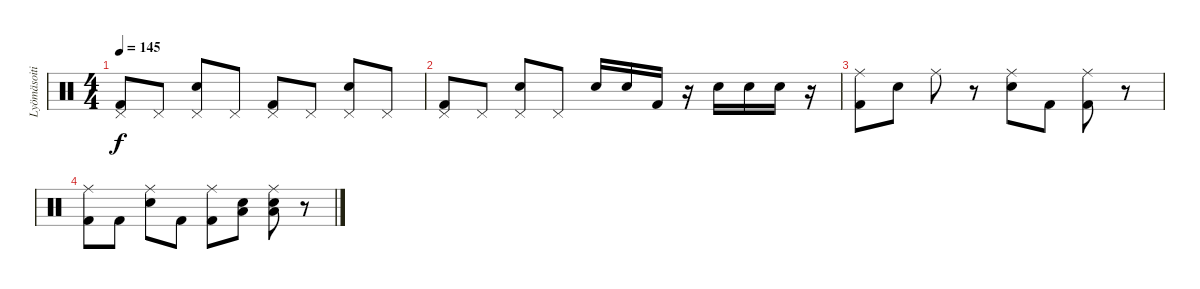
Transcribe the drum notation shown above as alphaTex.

\track ("Lyömäsoitin" "Lyömäsoiti") {instrument percussion}
\staff {score}
\articulation defaults
\ts (4 4)
\tempo 145
\clef neutral
\ks c
("Pedal Hi-Hat (hit)" "Kick (hit) 2").8{dy f} "Pedal Hi-Hat (hit)".8 ("Pedal Hi-Hat (hit)" "Electric Snare (hit)").8 "Pedal Hi-Hat (hit)".8 ("Pedal Hi-Hat (hit)" "Kick (hit) 2").8 "Pedal Hi-Hat (hit)".8 ("Pedal Hi-Hat (hit)" "Electric Snare (hit)").8 "Pedal Hi-Hat (hit)".8 |
("Pedal Hi-Hat (hit)" "Kick (hit) 2").8 "Pedal Hi-Hat (hit)".8 ("Pedal Hi-Hat (hit)" "Electric Snare (hit)").8 "Pedal Hi-Hat (hit)".8 "Electric Snare (hit)".16 "Electric Snare (hit)".16 "Kick (hit) 2".16 r.16 "Electric Snare (hit)".16 "Electric Snare (hit)".16 "Electric Snare (hit)".16 r.16 |
("Ride (middle)" "Kick (hit) 2").8 "Electric Snare (hit)".8 "Ride (middle)".8 r.8 ("Ride (middle)" "Electric Snare (hit)").8 "Kick (hit) 2".8 ("Ride (middle)" "Kick (hit) 2").8 r.8 |
("Ride (middle)" "Kick (hit) 2").8 "Kick (hit) 2".8 ("Ride (middle)" "Electric Snare (hit)").8 "Kick (hit) 2".8 ("Ride (middle)" "Kick (hit) 2").8 ("Low Floor Tom (hit)" "Electric Snare (hit)").8 ("Ride (middle)" "Low Floor Tom (hit)" "Electric Snare (hit)").8 r.8
